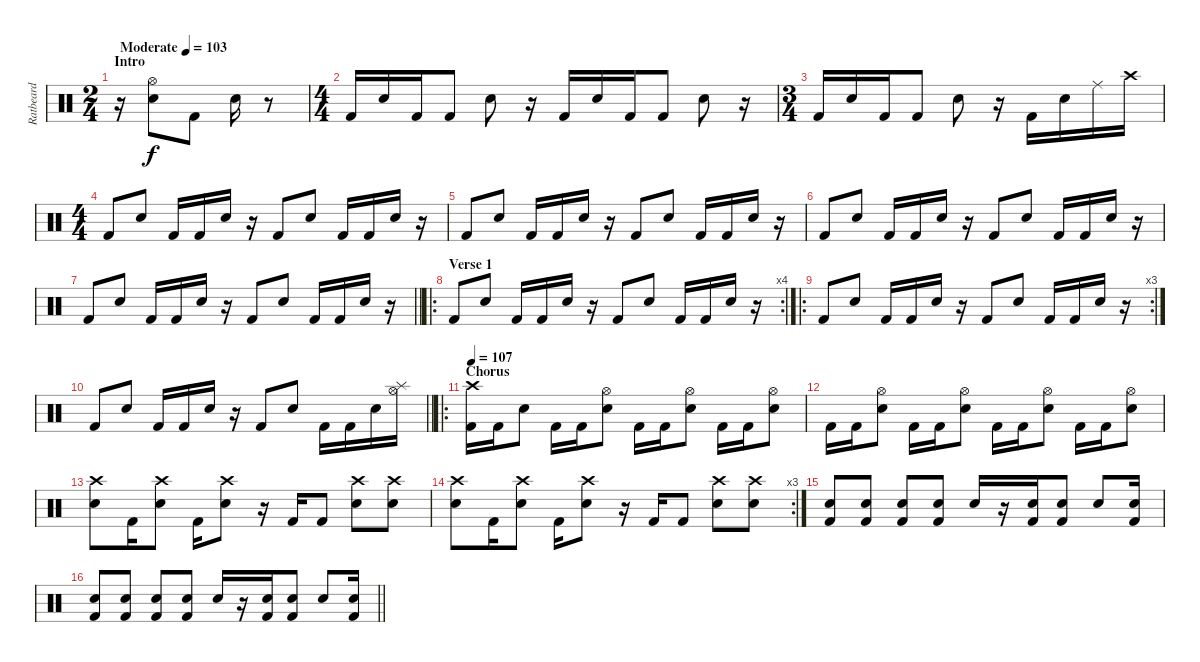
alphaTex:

\track ("Ratbeard" "Ratbeard") {instrument percussion}
\staff {score}
\articulation defaults
\ts (2 4)
\section ("" "Intro")
\tempo (103 "Moderate")
\clef neutral
\ks c
r.16{dy f} ("Metronome (bell)" "Hi-Hat (open)").8 "Kick (hit) 2".8 "Snare (hit) 2".16 r.8 |
\ts (4 4)
"Kick (hit) 2".16 "Snare (hit) 2".16 "Kick (hit) 2".16 "Kick (hit) 2".8 "Snare (hit) 2".8 r.16 "Kick (hit) 2".16 "Snare (hit) 2".16 "Kick (hit) 2".16 "Kick (hit) 2".8 "Snare (hit) 2".8 r.16 |
\ts (3 4)
"Kick (hit) 2".16 "Snare (hit) 2".16 "Kick (hit) 2".16 "Kick (hit) 2".8 "Snare (hit) 2".8 r.16 "Kick (hit) 2".16 "Snare (hit) 2".16 "Ride (middle)".16 "Crash high (hit)".16 |
\ts (4 4)
"Kick (hit) 2".8 "Snare (hit) 2".8 "Kick (hit) 2".16 "Kick (hit) 2".16 "Snare (hit) 2".16 r.16 "Kick (hit) 2".8 "Snare (hit) 2".8 "Kick (hit) 2".16 "Kick (hit) 2".16 "Snare (hit) 2".16 r.16 |
"Kick (hit) 2".8 "Snare (hit) 2".8 "Kick (hit) 2".16 "Kick (hit) 2".16 "Snare (hit) 2".16 r.16 "Kick (hit) 2".8 "Snare (hit) 2".8 "Kick (hit) 2".16 "Kick (hit) 2".16 "Snare (hit) 2".16 r.16 |
"Kick (hit) 2".8 "Snare (hit) 2".8 "Kick (hit) 2".16 "Kick (hit) 2".16 "Snare (hit) 2".16 r.16 "Kick (hit) 2".8 "Snare (hit) 2".8 "Kick (hit) 2".16 "Kick (hit) 2".16 "Snare (hit) 2".16 r.16 |
\barLineRight lightlight "Kick (hit) 2".8 "Snare (hit) 2".8 "Kick (hit) 2".16 "Kick (hit) 2".16 "Snare (hit) 2".16
r.16 "Kick (hit) 2".8 "Snare (hit) 2".8 "Kick (hit) 2".16 "Kick (hit) 2".16 "Snare (hit) 2".16 r.16 |
\ro
\rc 4
\section ("" "Verse 1")
"Kick (hit) 2".8 "Snare (hit) 2".8 "Kick (hit) 2".16 "Kick (hit) 2".16 "Snare (hit) 2".16 r.16 "Kick (hit) 2".8 "Snare (hit) 2".8 "Kick (hit) 2".16 "Kick (hit) 2".16 "Snare (hit) 2".16 r.16 |
\ro
\rc 3 "Kick (hit) 2".8 "Snare (hit) 2".8 "Kick (hit) 2".16 "Kick (hit) 2".16 "Snare (hit) 2".16
r.16 "Kick (hit) 2".8 "Snare (hit) 2".8 "Kick (hit) 2".16 "Kick (hit) 2".16 "Snare (hit) 2".16 r.16 |
\barLineRight lightlight "Kick (hit) 2".8 "Snare (hit) 2".8 "Kick (hit) 2".16 "Kick (hit) 2".16 "Snare (hit) 2".16
r.16 "Kick (hit) 2".8 "Snare (hit) 2".8 "Kick (hit) 2".16 "Kick (hit) 2".16 "Snare (hit) 2".16 ("Hi-Hat (open)" "Splash (hit)").16 |
\ro
\section ("" "Chorus")
\tempo 107
("Crash high (hit)" "Kick (hit) 2").16 "Kick (hit) 2".16 "Snare (hit) 2".8 "Kick (hit) 2".16 "Kick (hit) 2".16 ("Hi-Hat (open)" "Snare (hit) 2").8 "Kick (hit) 2".16 "Kick (hit) 2".16 ("Hi-Hat (open)" "Snare (hit) 2").8 "Kick (hit) 2".16 "Kick (hit) 2".16 ("Hi-Hat (open)" "Snare (hit) 2").8 |
"Kick (hit) 2".16 "Kick (hit) 2".16 ("Hi-Hat (open)" "Snare (hit) 2").8 "Kick (hit) 2".16 "Kick (hit) 2".16 ("Hi-Hat (open)" "Snare (hit) 2").8 "Kick (hit) 2".16 "Kick (hit) 2".16 ("Hi-Hat (open)" "Snare (hit) 2").8 "Kick (hit) 2".16 "Kick (hit) 2".16 ("Hi-Hat (open)" "Snare (hit) 2").8 |
("Crash high (hit)" "Snare (hit) 2").8 "Kick (hit) 2".16 ("Crash high (hit)" "Snare (hit) 2").8 "Kick (hit) 2".16 ("Crash high (hit)" "Snare (hit) 2").8 r.16 "Kick (hit) 2".16 "Kick (hit) 2".8 ("Crash high (hit)" "Snare (hit) 2").8 ("Crash high (hit)" "Snare (hit) 2").8 |
\rc 3
("Crash high (hit)" "Snare (hit) 2").8 "Kick (hit) 2".16 ("Crash high (hit)" "Snare (hit) 2").8 "Kick (hit) 2".16 ("Crash high (hit)" "Snare (hit) 2").8 r.16 "Kick (hit) 2".16 "Kick (hit) 2".8 ("Crash high (hit)" "Snare (hit) 2").8 ("Crash high (hit)" "Snare (hit) 2").8 |
("Kick (hit) 2" "Snare (hit) 2").8 ("Kick (hit) 2" "Snare (hit) 2").8 ("Kick (hit) 2" "Snare (hit) 2").8 ("Kick (hit) 2" "Snare (hit) 2").8 "Snare (hit) 2".16 r.16 ("Kick (hit) 2" "Snare (hit) 2").16 ("Kick (hit) 2" "Snare (hit) 2").8 "Snare (hit) 2".8 ("Kick (hit) 2" "Snare (hit) 2").16 |
\barLineRight lightlight
("Kick (hit) 2" "Snare (hit) 2").8 ("Kick (hit) 2" "Snare (hit) 2").8 ("Kick (hit) 2" "Snare (hit) 2").8 ("Kick (hit) 2" "Snare (hit) 2").8 "Snare (hit) 2".16 r.16 ("Kick (hit) 2" "Snare (hit) 2").16 ("Kick (hit) 2" "Snare (hit) 2").8 "Snare (hit) 2".8 ("Kick (hit) 2" "Snare (hit) 2").16
